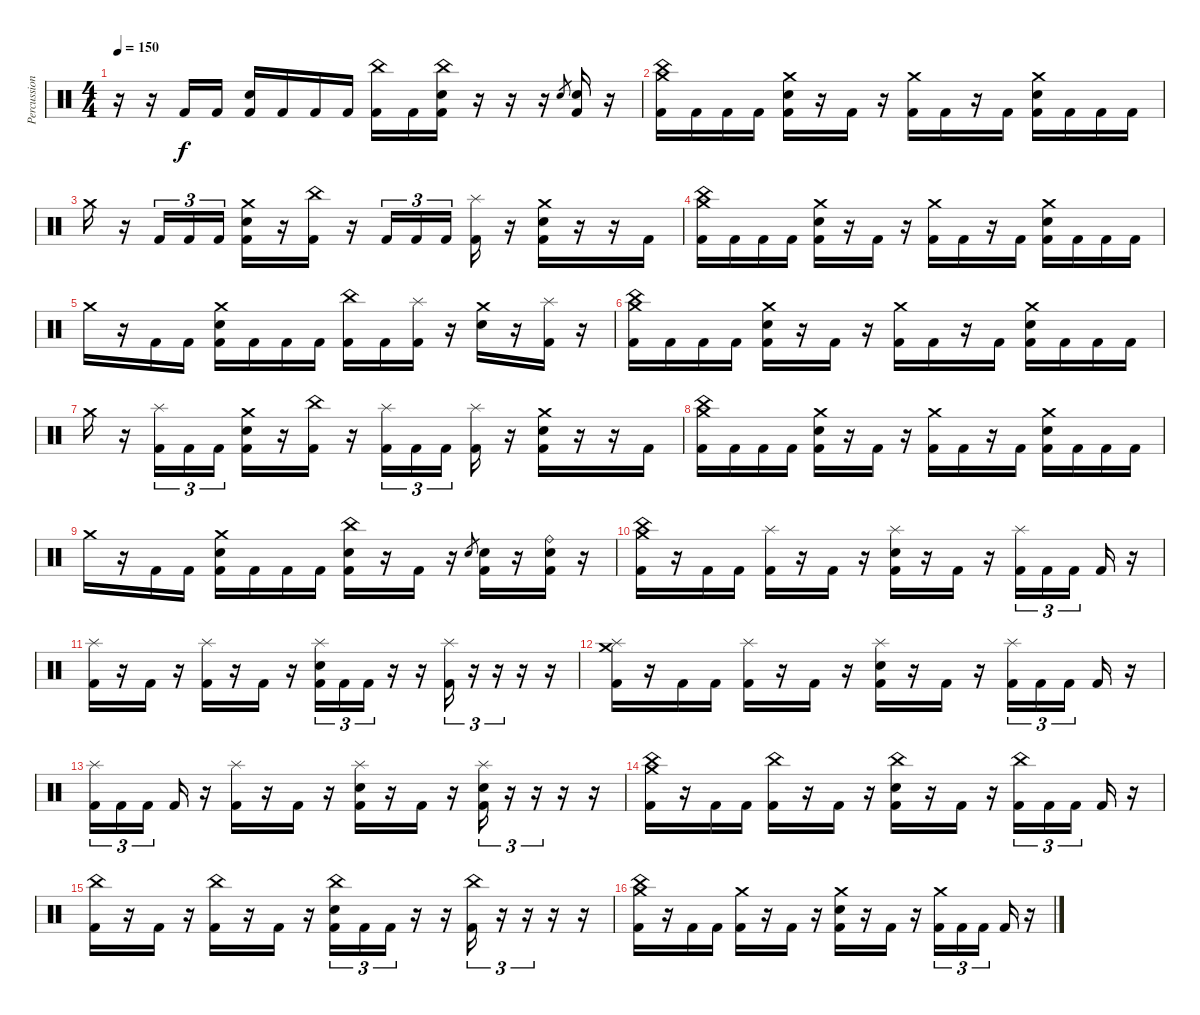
\track ("Percussion" "Percussion") {instrument percussion}
\staff {score}
\articulation defaults
\ts (4 4)
\tempo 150
\clef neutral
\ks c
r.16{dy f} r.16 "Kick (hit) 2".16 "Kick (hit) 2".16 ("Electric Snare (hit)" "Kick (hit) 2").16 "Kick (hit) 2".16 "Kick (hit) 2".16 "Kick (hit) 2".16 ("China (hit)" "Kick (hit) 2").16 "Kick (hit) 2".16 ("China (hit)" "Electric Snare (hit)" "Kick (hit) 2").16 r.16 r.16 r.16 "Electric Snare (hit)".8{gr} ("Electric Snare (hit)" "Kick (hit) 2").16 r.16 |
("China (hit)" "Crash medium (hit)" "Kick (hit) 2").16 "Kick (hit) 2".16 "Kick (hit) 2".16 "Kick (hit) 2".16 ("Crash medium (hit)" "Electric Snare (hit)" "Kick (hit) 2").16 r.16 "Kick (hit) 2".16 r.16 ("Crash medium (hit)" "Kick (hit) 2").16 "Kick (hit) 2".16 r.16 "Kick (hit) 2".16 ("Crash medium (hit)" "Electric Snare (hit)" "Kick (hit) 2").16 "Kick (hit) 2".16 "Kick (hit) 2".16 "Kick (hit) 2".16 |
"Crash medium (hit)".16 r.16 "Kick (hit) 2".16{tu (3 2)} "Kick (hit) 2".16{tu (3 2)} "Kick (hit) 2".16{tu (3 2)} ("Crash medium (hit)" "Electric Snare (hit)" "Kick (hit) 2").16 r.16 ("China (hit)" "Kick (hit) 2").16 r.16 "Kick (hit) 2".16{tu (3 2)} "Kick (hit) 2".16{tu (3 2)} "Kick (hit) 2".16{tu (3 2) beam splitsecondary} ("Splash (hit)" "Kick (hit) 2").16 r.16 ("Crash medium (hit)" "Electric Snare (hit)" "Kick (hit) 2").16 r.16 r.16 "Kick (hit) 2".16 |
("China (hit)" "Crash medium (hit)" "Kick (hit) 2").16 "Kick (hit) 2".16 "Kick (hit) 2".16 "Kick (hit) 2".16 ("Crash medium (hit)" "Electric Snare (hit)" "Kick (hit) 2").16 r.16 "Kick (hit) 2".16 r.16 ("Crash medium (hit)" "Kick (hit) 2").16 "Kick (hit) 2".16 r.16 "Kick (hit) 2".16 ("Crash medium (hit)" "Electric Snare (hit)" "Kick (hit) 2").16 "Kick (hit) 2".16 "Kick (hit) 2".16 "Kick (hit) 2".16 |
"Crash medium (hit)".16 r.16 "Kick (hit) 2".16 "Kick (hit) 2".16 ("Crash medium (hit)" "Electric Snare (hit)" "Kick (hit) 2").16 "Kick (hit) 2".16 "Kick (hit) 2".16 "Kick (hit) 2".16 ("China (hit)" "Kick (hit) 2").16 "Kick (hit) 2".16 ("Splash (hit)" "Kick (hit) 2").16 r.16 ("Crash medium (hit)" "Electric Snare (hit)").16 r.16 ("Splash (hit)" "Kick (hit) 2").16 r.16 |
("China (hit)" "Crash medium (hit)" "Kick (hit) 2").16 "Kick (hit) 2".16 "Kick (hit) 2".16 "Kick (hit) 2".16 ("Crash medium (hit)" "Electric Snare (hit)" "Kick (hit) 2").16 r.16 "Kick (hit) 2".16 r.16 ("Crash medium (hit)" "Kick (hit) 2").16 "Kick (hit) 2".16 r.16 "Kick (hit) 2".16 ("Crash medium (hit)" "Electric Snare (hit)" "Kick (hit) 2").16 "Kick (hit) 2".16 "Kick (hit) 2".16 "Kick (hit) 2".16 |
"Crash medium (hit)".16 r.16 ("Splash (hit)" "Kick (hit) 2").16{tu (3 2)} "Kick (hit) 2".16{tu (3 2)} "Kick (hit) 2".16{tu (3 2)} ("Crash medium (hit)" "Electric Snare (hit)" "Kick (hit) 2").16 r.16 ("China (hit)" "Kick (hit) 2").16 r.16 ("Splash (hit)" "Kick (hit) 2").16{tu (3 2)} "Kick (hit) 2".16{tu (3 2)} "Kick (hit) 2".16{tu (3 2) beam splitsecondary} ("Splash (hit)" "Kick (hit) 2").16 r.16 ("Crash medium (hit)" "Electric Snare (hit)" "Kick (hit) 2").16 r.16 r.16 "Kick (hit) 2".16 |
("China (hit)" "Crash medium (hit)" "Kick (hit) 2").16 "Kick (hit) 2".16 "Kick (hit) 2".16 "Kick (hit) 2".16 ("Crash medium (hit)" "Electric Snare (hit)" "Kick (hit) 2").16 r.16 "Kick (hit) 2".16 r.16 ("Crash medium (hit)" "Kick (hit) 2").16 "Kick (hit) 2".16 r.16 "Kick (hit) 2".16 ("Crash medium (hit)" "Electric Snare (hit)" "Kick (hit) 2").16 "Kick (hit) 2".16 "Kick (hit) 2".16 "Kick (hit) 2".16 |
"Crash medium (hit)".16 r.16 "Kick (hit) 2".16 "Kick (hit) 2".16 ("Crash medium (hit)" "Electric Snare (hit)" "Kick (hit) 2").16 "Kick (hit) 2".16 "Kick (hit) 2".16 "Kick (hit) 2".16 ("China (hit)" "Electric Snare (hit)" "Kick (hit) 2").16 r.16 "Kick (hit) 2".16 r.16 "Electric Snare (hit)".8{gr} ("Electric Snare (hit)" "Kick (hit) 2").16 r.16 ("Ride (bell)" "Electric Snare (hit)" "Kick (hit) 2").16 r.16 |
("China (hit)" "Crash medium (hit)" "Kick (hit) 2").16 r.16 "Kick (hit) 2".16 "Kick (hit) 2".16 ("Splash (hit)" "Kick (hit) 2").16 r.16 "Kick (hit) 2".16 r.16 ("Splash (hit)" "Electric Snare (hit)" "Kick (hit) 2").16 r.16 "Kick (hit) 2".16 r.16 ("Splash (hit)" "Kick (hit) 2").16{tu (3 2)} "Kick (hit) 2".16{tu (3 2)} "Kick (hit) 2".16{tu (3 2) beam splitsecondary} "Kick (hit) 2".16 r.16 |
("Splash (hit)" "Kick (hit) 2").16 r.16 "Kick (hit) 2".16 r.16 ("Splash (hit)" "Kick (hit) 2").16 r.16 "Kick (hit) 2".16 r.16 ("Splash (hit)" "Electric Snare (hit)" "Kick (hit) 2").16{tu (3 2)} "Kick (hit) 2".16{tu (3 2)} "Kick (hit) 2".16{tu (3 2)} r.16 r.16 ("Splash (hit)" "Kick (hit) 2").16{tu (3 2)} r.16{tu (3 2)} r.16{tu (3 2)} r.16 r.16 |
("Splash (hit)" "Crash medium (hit)" "Kick (hit) 2").16 r.16 "Kick (hit) 2".16 "Kick (hit) 2".16 ("Splash (hit)" "Kick (hit) 2").16 r.16 "Kick (hit) 2".16 r.16 ("Splash (hit)" "Electric Snare (hit)" "Kick (hit) 2").16 r.16 "Kick (hit) 2".16 r.16 ("Splash (hit)" "Kick (hit) 2").16{tu (3 2)} "Kick (hit) 2".16{tu (3 2)} "Kick (hit) 2".16{tu (3 2) beam splitsecondary} "Kick (hit) 2".16 r.16 |
("Splash (hit)" "Kick (hit) 2").16{tu (3 2)} "Kick (hit) 2".16{tu (3 2)} "Kick (hit) 2".16{tu (3 2) beam splitsecondary} "Kick (hit) 2".16 r.16 ("Splash (hit)" "Kick (hit) 2").16 r.16 "Kick (hit) 2".16 r.16 ("Splash (hit)" "Electric Snare (hit)" "Kick (hit) 2").16 r.16 "Kick (hit) 2".16 r.16 ("Splash (hit)" "Electric Snare (hit)" "Kick (hit) 2").16{tu (3 2)} r.16{tu (3 2)} r.16{tu (3 2)} r.16 r.16 |
("China (hit)" "Crash medium (hit)" "Kick (hit) 2").16 r.16 "Kick (hit) 2".16 "Kick (hit) 2".16 ("China (hit)" "Kick (hit) 2").16 r.16 "Kick (hit) 2".16 r.16 ("China (hit)" "Electric Snare (hit)" "Kick (hit) 2").16 r.16 "Kick (hit) 2".16 r.16 ("China (hit)" "Kick (hit) 2").16{tu (3 2)} "Kick (hit) 2".16{tu (3 2)} "Kick (hit) 2".16{tu (3 2) beam splitsecondary} "Kick (hit) 2".16 r.16 |
("China (hit)" "Kick (hit) 2").16 r.16 "Kick (hit) 2".16 r.16 ("China (hit)" "Kick (hit) 2").16 r.16 "Kick (hit) 2".16 r.16 ("China (hit)" "Electric Snare (hit)" "Kick (hit) 2").16{tu (3 2)} "Kick (hit) 2".16{tu (3 2)} "Kick (hit) 2".16{tu (3 2)} r.16 r.16 ("China (hit)" "Kick (hit) 2").16{tu (3 2)} r.16{tu (3 2)} r.16{tu (3 2)} r.16 r.16 |
("China (hit)" "Crash medium (hit)" "Kick (hit) 2").16 r.16 "Kick (hit) 2".16 "Kick (hit) 2".16 ("Crash medium (hit)" "Kick (hit) 2").16 r.16 "Kick (hit) 2".16 r.16 ("Crash medium (hit)" "Electric Snare (hit)" "Kick (hit) 2").16 r.16 "Kick (hit) 2".16 r.16 ("Crash medium (hit)" "Kick (hit) 2").16{tu (3 2)} "Kick (hit) 2".16{tu (3 2)} "Kick (hit) 2".16{tu (3 2) beam splitsecondary} "Kick (hit) 2".16 r.16
